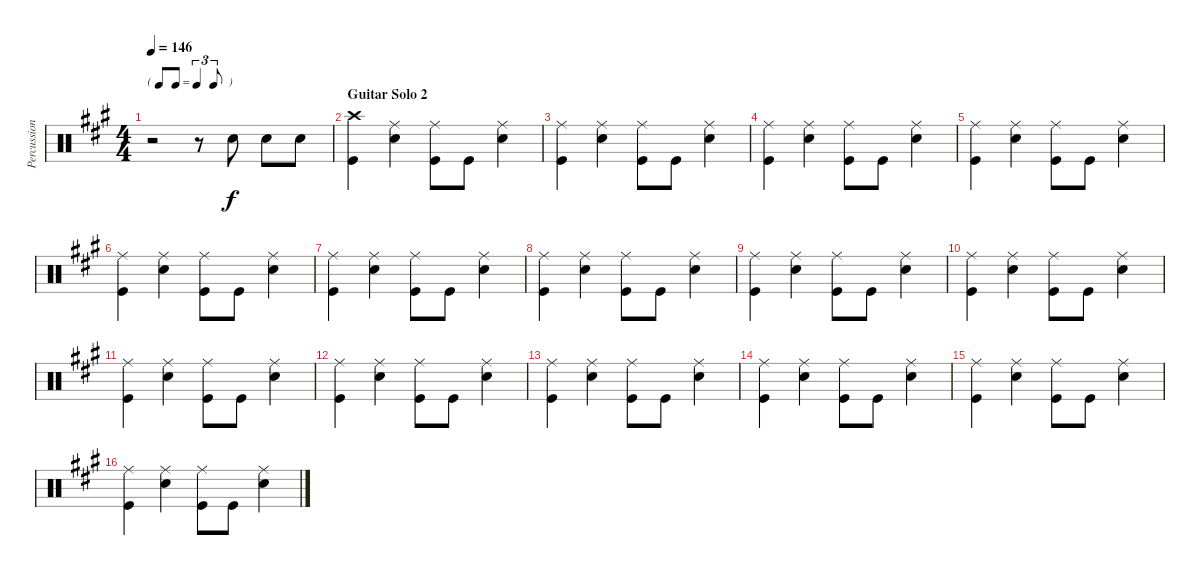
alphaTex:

\track ("Percussion" "Percussion") {instrument percussion}
\staff {score}
\articulation defaults
\ts (4 4)
\tf triplet8th
\tempo 146
\clef neutral
\ks a
r.2{dy f} r.8 "Snare (hit) 2".8 "Snare (hit) 2".8 "Snare (hit) 2".8 |
\section ("" "Guitar Solo 2")
("Crash high (hit)" "Kick (hit)").4 ("Ride (middle)" "Snare (hit) 2").4 ("Ride (middle)" "Kick (hit)").8 "Kick (hit)".8 ("Ride (middle)" "Snare (hit) 2").4 |
("Ride (middle)" "Kick (hit)").4 ("Ride (middle)" "Snare (hit) 2").4 ("Ride (middle)" "Kick (hit)").8 "Kick (hit)".8 ("Ride (middle)" "Snare (hit) 2").4 |
("Ride (middle)" "Kick (hit)").4 ("Ride (middle)" "Snare (hit) 2").4 ("Ride (middle)" "Kick (hit)").8 "Kick (hit)".8 ("Ride (middle)" "Snare (hit) 2").4 |
("Ride (middle)" "Kick (hit)").4 ("Ride (middle)" "Snare (hit) 2").4 ("Ride (middle)" "Kick (hit)").8 "Kick (hit)".8 ("Ride (middle)" "Snare (hit) 2").4 |
("Ride (middle)" "Kick (hit)").4 ("Ride (middle)" "Snare (hit) 2").4 ("Ride (middle)" "Kick (hit)").8 "Kick (hit)".8 ("Ride (middle)" "Snare (hit) 2").4 |
("Ride (middle)" "Kick (hit)").4 ("Ride (middle)" "Snare (hit) 2").4 ("Ride (middle)" "Kick (hit)").8 "Kick (hit)".8 ("Ride (middle)" "Snare (hit) 2").4 |
("Ride (middle)" "Kick (hit)").4 ("Ride (middle)" "Snare (hit) 2").4 ("Ride (middle)" "Kick (hit)").8 "Kick (hit)".8 ("Ride (middle)" "Snare (hit) 2").4 |
("Ride (middle)" "Kick (hit)").4 ("Ride (middle)" "Snare (hit) 2").4 ("Ride (middle)" "Kick (hit)").8 "Kick (hit)".8 ("Ride (middle)" "Snare (hit) 2").4 |
("Ride (middle)" "Kick (hit)").4 ("Ride (middle)" "Snare (hit) 2").4 ("Ride (middle)" "Kick (hit)").8 "Kick (hit)".8 ("Ride (middle)" "Snare (hit) 2").4 |
("Ride (middle)" "Kick (hit)").4 ("Ride (middle)" "Snare (hit) 2").4 ("Ride (middle)" "Kick (hit)").8 "Kick (hit)".8 ("Ride (middle)" "Snare (hit) 2").4 |
("Ride (middle)" "Kick (hit)").4 ("Ride (middle)" "Snare (hit) 2").4 ("Ride (middle)" "Kick (hit)").8 "Kick (hit)".8 ("Ride (middle)" "Snare (hit) 2").4 |
("Ride (middle)" "Kick (hit)").4 ("Ride (middle)" "Snare (hit) 2").4 ("Ride (middle)" "Kick (hit)").8 "Kick (hit)".8 ("Ride (middle)" "Snare (hit) 2").4 |
("Ride (middle)" "Kick (hit)").4 ("Ride (middle)" "Snare (hit) 2").4 ("Ride (middle)" "Kick (hit)").8 "Kick (hit)".8 ("Ride (middle)" "Snare (hit) 2").4 |
("Ride (middle)" "Kick (hit)").4 ("Ride (middle)" "Snare (hit) 2").4 ("Ride (middle)" "Kick (hit)").8 "Kick (hit)".8 ("Ride (middle)" "Snare (hit) 2").4 |
("Ride (middle)" "Kick (hit)").4 ("Ride (middle)" "Snare (hit) 2").4 ("Ride (middle)" "Kick (hit)").8 "Kick (hit)".8 ("Ride (middle)" "Snare (hit) 2").4
